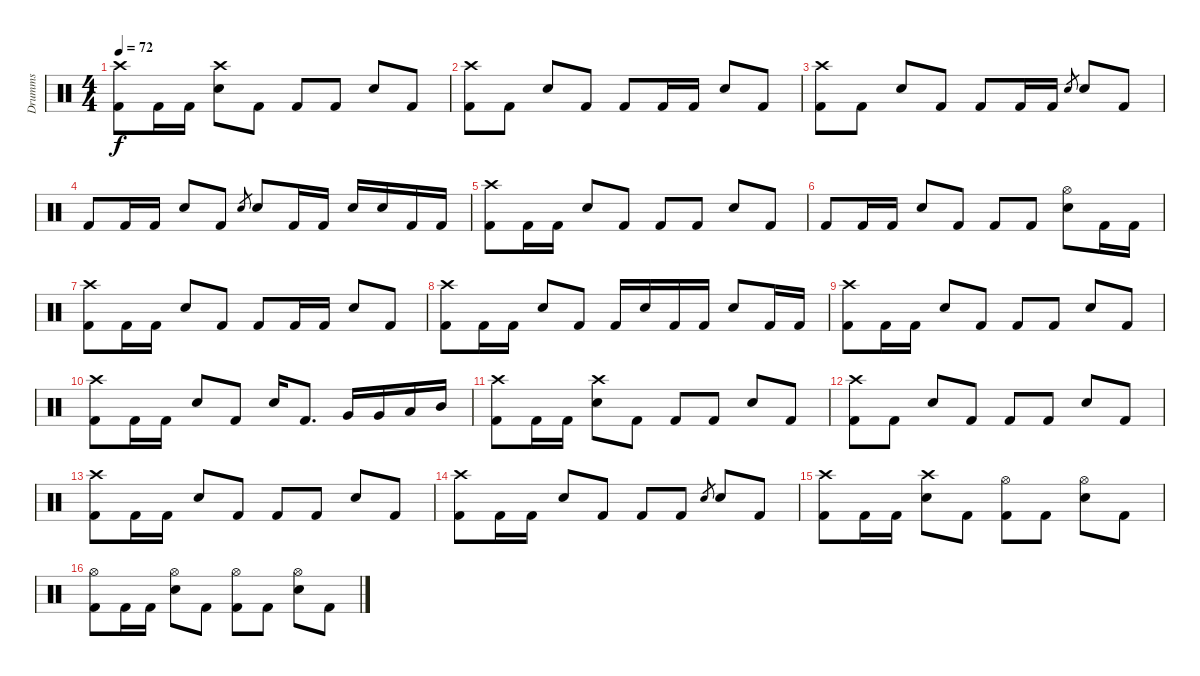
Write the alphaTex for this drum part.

\track ("Drumms" "Drumms") {instrument percussion}
\staff {score}
\articulation defaults
\ts (4 4)
\section ("" "")
\tempo 72
\clef neutral
\ks c
("Crash high (hit)" "Kick (hit) 2").8{dy f} "Kick (hit) 2".16 "Kick (hit) 2".16 ("Crash high (hit)" "Electric Snare (hit)").8 "Kick (hit) 2".8 "Kick (hit) 2".8 "Kick (hit) 2".8 "Electric Snare (hit)".8 "Kick (hit) 2".8 |
("Crash high (hit)" "Kick (hit) 2").8 "Kick (hit) 2".8 "Electric Snare (hit)".8 "Kick (hit) 2".8 "Kick (hit) 2".8 "Kick (hit) 2".16 "Kick (hit) 2".16 "Electric Snare (hit)".8 "Kick (hit) 2".8 |
("Crash high (hit)" "Kick (hit) 2").8 "Kick (hit) 2".8 "Electric Snare (hit)".8 "Kick (hit) 2".8 "Kick (hit) 2".8 "Kick (hit) 2".16 "Kick (hit) 2".16 "Electric Snare (hit)".8{gr} "Electric Snare (hit)".8 "Kick (hit) 2".8 |
"Kick (hit) 2".8 "Kick (hit) 2".16 "Kick (hit) 2".16 "Electric Snare (hit)".8 "Kick (hit) 2".8 "Electric Snare (hit)".8{gr} "Electric Snare (hit)".8 "Kick (hit) 2".16 "Kick (hit) 2".16 "Electric Snare (hit)".16 "Electric Snare (hit)".16 "Kick (hit) 2".16 "Kick (hit) 2".16 |
("Crash high (hit)" "Kick (hit) 2").8 "Kick (hit) 2".16 "Kick (hit) 2".16 "Electric Snare (hit)".8 "Kick (hit) 2".8 "Kick (hit) 2".8 "Kick (hit) 2".8 "Electric Snare (hit)".8 "Kick (hit) 2".8 |
"Kick (hit) 2".8 "Kick (hit) 2".16 "Kick (hit) 2".16 "Electric Snare (hit)".8 "Kick (hit) 2".8 "Kick (hit) 2".8 "Kick (hit) 2".8 ("Hi-Hat (open)" "Electric Snare (hit)").8 "Kick (hit) 2".16 "Kick (hit) 2".16 |
("Crash high (hit)" "Kick (hit) 2").8 "Kick (hit) 2".16 "Kick (hit) 2".16 "Electric Snare (hit)".8 "Kick (hit) 2".8 "Kick (hit) 2".8 "Kick (hit) 2".16 "Kick (hit) 2".16 "Electric Snare (hit)".8 "Kick (hit) 2".8 |
("Crash high (hit)" "Kick (hit) 2").8 "Kick (hit) 2".16 "Kick (hit) 2".16 "Electric Snare (hit)".8 "Kick (hit) 2".8 "Kick (hit) 2".16 "Electric Snare (hit)".16 "Kick (hit) 2".16 "Kick (hit) 2".16 "Electric Snare (hit)".8 "Kick (hit) 2".16 "Kick (hit) 2".16 |
("Crash high (hit)" "Kick (hit) 2").8 "Kick (hit) 2".16 "Kick (hit) 2".16 "Electric Snare (hit)".8 "Kick (hit) 2".8 "Kick (hit) 2".8 "Kick (hit) 2".8 "Electric Snare (hit)".8 "Kick (hit) 2".8 |
("Crash high (hit)" "Kick (hit) 2").8 "Kick (hit) 2".16 "Kick (hit) 2".16 "Electric Snare (hit)".8 "Kick (hit) 2".8 "Electric Snare (hit)".16 "Kick (hit) 2".8{d} "Very Low Tom (hit)".16 "Very Low Tom (hit)".16 "Low Tom (hit)".16 "Mid Tom (hit)".16 |
("Crash high (hit)" "Kick (hit) 2").8 "Kick (hit) 2".16 "Kick (hit) 2".16 ("Crash high (hit)" "Electric Snare (hit)").8 "Kick (hit) 2".8 "Kick (hit) 2".8 "Kick (hit) 2".8 "Electric Snare (hit)".8 "Kick (hit) 2".8 |
("Crash high (hit)" "Kick (hit) 2").8 "Kick (hit) 2".8 "Electric Snare (hit)".8 "Kick (hit) 2".8 "Kick (hit) 2".8 "Kick (hit) 2".8 "Electric Snare (hit)".8 "Kick (hit) 2".8 |
("Crash high (hit)" "Kick (hit) 2").8 "Kick (hit) 2".16 "Kick (hit) 2".16 "Electric Snare (hit)".8 "Kick (hit) 2".8 "Kick (hit) 2".8 "Kick (hit) 2".8 "Electric Snare (hit)".8 "Kick (hit) 2".8 |
("Crash high (hit)" "Kick (hit) 2").8 "Kick (hit) 2".16 "Kick (hit) 2".16 "Electric Snare (hit)".8 "Kick (hit) 2".8 "Kick (hit) 2".8 "Kick (hit) 2".8 "Electric Snare (hit)".8{gr} "Electric Snare (hit)".8 "Kick (hit) 2".8 |
("Crash high (hit)" "Kick (hit) 2").8 "Kick (hit) 2".16 "Kick (hit) 2".16 ("Crash high (hit)" "Electric Snare (hit)").8 "Kick (hit) 2".8 ("Hi-Hat (open)" "Kick (hit) 2").8 "Kick (hit) 2".8 ("Hi-Hat (open)" "Electric Snare (hit)").8 "Kick (hit) 2".8 |
("Hi-Hat (open)" "Kick (hit) 2").8 "Kick (hit) 2".16 "Kick (hit) 2".16 ("Hi-Hat (open)" "Electric Snare (hit)").8 "Kick (hit) 2".8 ("Hi-Hat (open)" "Kick (hit) 2").8 "Kick (hit) 2".8 ("Hi-Hat (open)" "Electric Snare (hit)").8 "Kick (hit) 2".8
